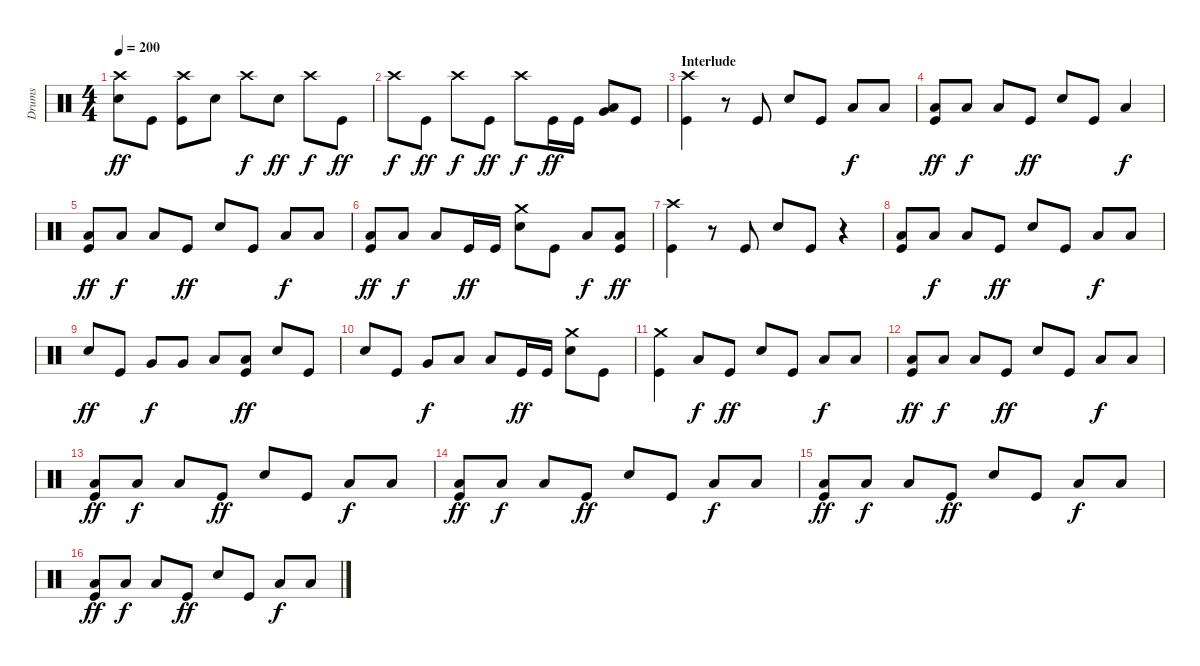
\track ("Drums" "Drums") {instrument percussion}
\staff {score}
\articulation defaults
\ts (4 4)
\tempo 200
\clef neutral
\ks c
("Crash high (hit)" "Electric Snare (hit)").8{dy ff} "Kick (hit)".8 ("Crash high (hit)" "Kick (hit)").8 "Electric Snare (hit)".8 "Crash high (hit)".8{dy f} "Electric Snare (hit)".8{dy ff} "Crash high (hit)".8{dy f} "Kick (hit)".8{dy ff} |
"Crash high (hit)".8{dy f} "Kick (hit)".8{dy ff} "Crash high (hit)".8{dy f} "Kick (hit)".8{dy ff} "Crash high (hit)".8{dy f} "Kick (hit)".16{dy ff} "Kick (hit)".16 ("Low Floor Tom (hit)" "Very Low Tom (hit)").8 "Kick (hit)".8 |
\section ("" "Interlude")
("Crash high (hit)" "Kick (hit)").4 r.8 "Kick (hit)".8 "Electric Snare (hit)".8 "Kick (hit)".8 "Low Floor Tom (hit)".8{dy f} "Low Floor Tom (hit)".8 |
("Low Floor Tom (hit)" "Kick (hit)").8{dy ff} "Low Floor Tom (hit)".8{dy f} "Low Floor Tom (hit)".8 "Kick (hit)".8{dy ff} "Electric Snare (hit)".8 "Kick (hit)".8 "Low Floor Tom (hit)".4{dy f} |
("Low Floor Tom (hit)" "Kick (hit)").8{dy ff} "Low Floor Tom (hit)".8{dy f} "Low Floor Tom (hit)".8 "Kick (hit)".8{dy ff} "Electric Snare (hit)".8 "Kick (hit)".8 "Low Floor Tom (hit)".8{dy f} "Low Floor Tom (hit)".8 |
("Low Floor Tom (hit)" "Kick (hit)").8{dy ff} "Low Floor Tom (hit)".8{dy f} "Low Floor Tom (hit)".8 "Kick (hit)".16{dy ff} "Kick (hit)".16 ("Crash medium (hit)" "Electric Snare (hit)").8 "Kick (hit)".8 "Low Floor Tom (hit)".8{dy f} ("Low Floor Tom (hit)" "Kick (hit)").8{dy ff} |
("Crash high (hit)" "Kick (hit)").4 r.8 "Kick (hit)".8 "Electric Snare (hit)".8 "Kick (hit)".8 r.4 |
("Low Floor Tom (hit)" "Kick (hit)").8 "Low Floor Tom (hit)".8{dy f} "Low Floor Tom (hit)".8 "Kick (hit)".8{dy ff} "Electric Snare (hit)".8 "Kick (hit)".8 "Low Floor Tom (hit)".8{dy f} "Low Floor Tom (hit)".8 |
"Electric Snare (hit)".8{dy ff} "Kick (hit)".8 "Very Low Tom (hit)".8{dy f} "Very Low Tom (hit)".8 "Low Floor Tom (hit)".8 ("Low Floor Tom (hit)" "Kick (hit)").8{dy ff} "Electric Snare (hit)".8 "Kick (hit)".8 |
"Electric Snare (hit)".8 "Kick (hit)".8 "Very Low Tom (hit)".8{dy f} "Low Tom (hit)".8 "Low Floor Tom (hit)".8 "Kick (hit)".16{dy ff} "Kick (hit)".16 ("Crash medium (hit)" "Electric Snare (hit)").8 "Kick (hit)".8 |
("Crash medium (hit)" "Kick (hit)").4 "Low Floor Tom (hit)".8{dy f} "Kick (hit)".8{dy ff} "Electric Snare (hit)".8 "Kick (hit)".8 "Low Floor Tom (hit)".8{dy f} "Low Floor Tom (hit)".8 |
("Low Floor Tom (hit)" "Kick (hit)").8{dy ff} "Low Floor Tom (hit)".8{dy f} "Low Floor Tom (hit)".8 "Kick (hit)".8{dy ff} "Electric Snare (hit)".8 "Kick (hit)".8 "Low Floor Tom (hit)".8{dy f} "Low Floor Tom (hit)".8 |
("Low Floor Tom (hit)" "Kick (hit)").8{dy ff} "Low Floor Tom (hit)".8{dy f} "Low Floor Tom (hit)".8 "Kick (hit)".8{dy ff} "Electric Snare (hit)".8 "Kick (hit)".8 "Low Floor Tom (hit)".8{dy f} "Low Floor Tom (hit)".8 |
("Low Floor Tom (hit)" "Kick (hit)").8{dy ff} "Low Floor Tom (hit)".8{dy f} "Low Floor Tom (hit)".8 "Kick (hit)".8{dy ff} "Electric Snare (hit)".8 "Kick (hit)".8 "Low Floor Tom (hit)".8{dy f} "Low Floor Tom (hit)".8 |
("Low Floor Tom (hit)" "Kick (hit)").8{dy ff} "Low Floor Tom (hit)".8{dy f} "Low Floor Tom (hit)".8 "Kick (hit)".8{dy ff} "Electric Snare (hit)".8 "Kick (hit)".8 "Low Floor Tom (hit)".8{dy f} "Low Floor Tom (hit)".8 |
("Low Floor Tom (hit)" "Kick (hit)").8{dy ff} "Low Floor Tom (hit)".8{dy f} "Low Floor Tom (hit)".8 "Kick (hit)".8{dy ff} "Electric Snare (hit)".8 "Kick (hit)".8 "Low Floor Tom (hit)".8{dy f} "Low Floor Tom (hit)".8
